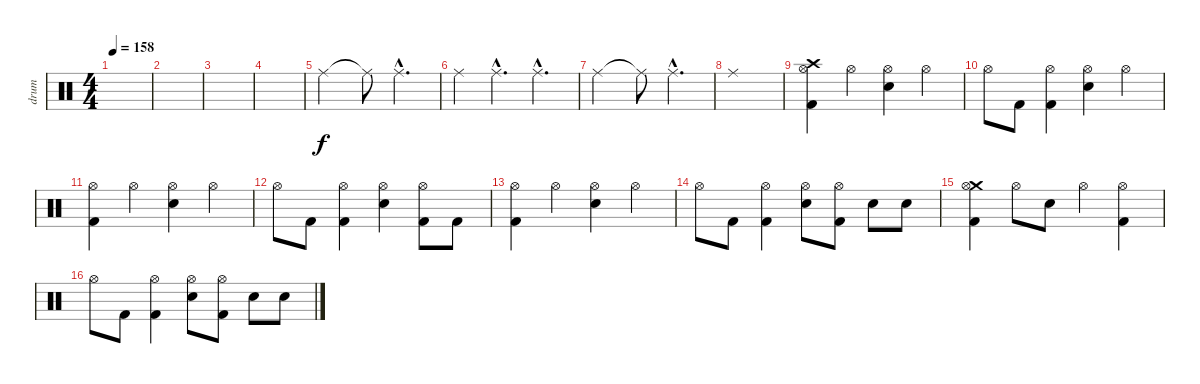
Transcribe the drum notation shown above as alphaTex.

\track ("drum" "drum") {instrument percussion}
\staff {score}
\articulation defaults
\ts (4 4)
\tempo 158
\clef neutral
\ks c
|
|
|
|
"Ride (middle)".2 "Ride (middle)"{t}.8 "Ride (middle)"{hac}.4{d} |
"Ride (middle)".4 "Ride (middle)"{hac}.4{d} "Ride (middle)"{hac}.4{d} |
"Ride (middle)".2 "Ride (middle)"{t}.8 "Ride (middle)"{hac}.4{d} |
"Ride (middle)".1 |
("Crash high (hit)" "Hi-Hat (open)" "Kick (hit) 2").4 "Hi-Hat (open)".4 ("Hi-Hat (open)" "Electric Snare (hit)").4 "Hi-Hat (open)".4 |
"Hi-Hat (open)".8 "Kick (hit) 2".8 ("Hi-Hat (open)" "Kick (hit) 2").4 ("Hi-Hat (open)" "Electric Snare (hit)").4 "Hi-Hat (open)".4 |
("Hi-Hat (open)" "Kick (hit) 2").4 "Hi-Hat (open)".4 ("Hi-Hat (open)" "Electric Snare (hit)").4 "Hi-Hat (open)".4 |
"Hi-Hat (open)".8 "Kick (hit) 2".8 ("Hi-Hat (open)" "Kick (hit) 2").4 ("Hi-Hat (open)" "Electric Snare (hit)").4 ("Hi-Hat (open)" "Kick (hit) 2").8 "Kick (hit) 2".8 |
("Hi-Hat (open)" "Kick (hit) 2").4 "Hi-Hat (open)".4 ("Hi-Hat (open)" "Electric Snare (hit)").4 "Hi-Hat (open)".4 |
"Hi-Hat (open)".8 "Kick (hit) 2".8 ("Hi-Hat (open)" "Kick (hit) 2").4 ("Hi-Hat (open)" "Electric Snare (hit)").8 ("Hi-Hat (open)" "Kick (hit) 2").8 "Electric Snare (hit)".8 "Electric Snare (hit)".8 |
("Crash medium (hit)" "Hi-Hat (open)" "Kick (hit) 2").4 "Hi-Hat (open)".8 "Electric Snare (hit)".8 "Hi-Hat (open)".4 ("Hi-Hat (open)" "Kick (hit) 2").4 |
"Hi-Hat (open)".8 "Kick (hit) 2".8 ("Hi-Hat (open)" "Kick (hit) 2").4 ("Hi-Hat (open)" "Electric Snare (hit)").8 ("Hi-Hat (open)" "Kick (hit) 2").8 "Electric Snare (hit)".8 "Electric Snare (hit)".8
